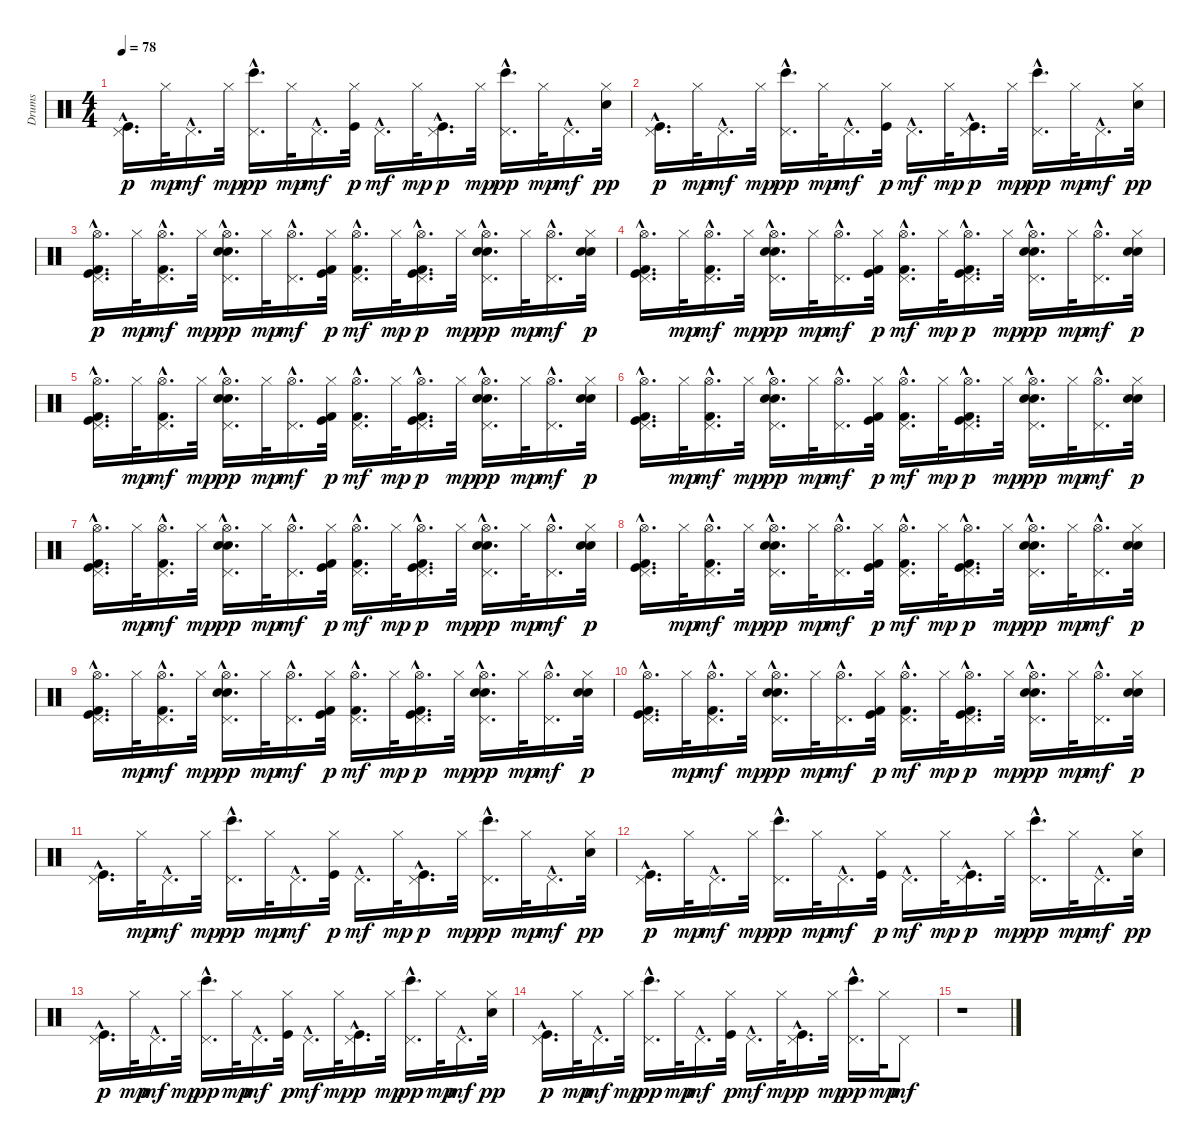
\track ("Drums" "Drums") {instrument percussion}
\staff {score}
\articulation defaults
\ts (4 4)
\tempo 78
\clef neutral
\ks c
("Pedal Hi-Hat (hit)"{hac} "Kick (hit)"{hac}).16{d dy p} "Hi-Hat (closed)".32{dy mp} "Pedal Hi-Hat (hit)"{hac}.16{d dy mf} "Hi-Hat (closed)".32{dy mp} ("Pedal Hi-Hat (hit)"{hac} "Bongo High (hit)"{hac}).16{d dy pp} "Hi-Hat (closed)".32{dy mp} "Pedal Hi-Hat (hit)"{hac}.16{d dy mf} ("Hi-Hat (closed)" "Kick (hit)").32{dy p} "Pedal Hi-Hat (hit)"{hac}.16{d dy mf} "Hi-Hat (closed)".32{dy mp} ("Pedal Hi-Hat (hit)"{hac} "Kick (hit)"{hac}).16{d dy p} "Hi-Hat (closed)".32{dy mp} ("Pedal Hi-Hat (hit)"{hac} "Bongo High (hit)"{hac}).16{d dy pp} "Hi-Hat (closed)".32{dy mp} "Pedal Hi-Hat (hit)"{hac}.16{d dy mf} ("Hi-Hat (closed)" "Snare (hit) 2").32{dy pp} |
("Pedal Hi-Hat (hit)"{hac} "Kick (hit)"{hac}).16{d dy p} "Hi-Hat (closed)".32{dy mp} "Pedal Hi-Hat (hit)"{hac}.16{d dy mf} "Hi-Hat (closed)".32{dy mp} ("Pedal Hi-Hat (hit)"{hac} "Bongo High (hit)"{hac}).16{d dy pp} "Hi-Hat (closed)".32{dy mp} "Pedal Hi-Hat (hit)"{hac}.16{d dy mf} ("Hi-Hat (closed)" "Kick (hit)").32{dy p} "Pedal Hi-Hat (hit)"{hac}.16{d dy mf} "Hi-Hat (closed)".32{dy mp} ("Pedal Hi-Hat (hit)"{hac} "Kick (hit)"{hac}).16{d dy p} "Hi-Hat (closed)".32{dy mp} ("Pedal Hi-Hat (hit)"{hac} "Bongo High (hit)"{hac}).16{d dy pp} "Hi-Hat (closed)".32{dy mp} "Pedal Hi-Hat (hit)"{hac}.16{d dy mf} ("Hi-Hat (closed)" "Snare (hit) 2").32{dy pp} |
("Pedal Hi-Hat (hit)"{hac} "Kick (hit)"{hac} "Hi-Hat (open)"{hac} "Kick (hit) 2"{hac}).16{d dy p} "Hi-Hat (closed)".32{dy mp} ("Pedal Hi-Hat (hit)"{hac} "Hi-Hat (open)"{hac} "Kick (hit) 2"{hac}).16{d dy mf} "Hi-Hat (closed)".32{dy mp} ("Pedal Hi-Hat (hit)"{hac} "Snare (hit) 2"{hac} "Hi-Hat (open)"{hac} "Electric Snare (hit)"{hac}).16{d dy pp} "Hi-Hat (closed)".32{dy mp} ("Pedal Hi-Hat (hit)"{hac} "Hi-Hat (open)"{hac}).16{d dy mf} ("Hi-Hat (closed)" "Kick (hit)" "Kick (hit) 2").32{dy p} ("Pedal Hi-Hat (hit)"{hac} "Hi-Hat (open)"{hac} "Kick (hit) 2"{hac}).16{d dy mf} "Hi-Hat (closed)".32{dy mp} ("Pedal Hi-Hat (hit)"{hac} "Kick (hit)"{hac} "Hi-Hat (open)"{hac} "Kick (hit) 2"{hac}).16{d dy p} "Hi-Hat (closed)".32{dy mp} ("Pedal Hi-Hat (hit)"{hac} "Snare (hit) 2"{hac} "Hi-Hat (open)"{hac} "Electric Snare (hit)"{hac}).16{d dy pp} "Hi-Hat (closed)".32{dy mp} ("Pedal Hi-Hat (hit)"{hac} "Hi-Hat (open)"{hac}).16{d dy mf} ("Hi-Hat (closed)" "Snare (hit) 2" "Electric Snare (hit)").32{dy p} |
("Pedal Hi-Hat (hit)"{hac} "Kick (hit)"{hac} "Hi-Hat (open)"{hac} "Kick (hit) 2"{hac}).16{d} "Hi-Hat (closed)".32{dy mp} ("Pedal Hi-Hat (hit)"{hac} "Hi-Hat (open)"{hac} "Kick (hit) 2"{hac}).16{d dy mf} "Hi-Hat (closed)".32{dy mp} ("Pedal Hi-Hat (hit)"{hac} "Snare (hit) 2"{hac} "Hi-Hat (open)"{hac} "Electric Snare (hit)"{hac}).16{d dy pp} "Hi-Hat (closed)".32{dy mp} ("Pedal Hi-Hat (hit)"{hac} "Hi-Hat (open)"{hac}).16{d dy mf} ("Hi-Hat (closed)" "Kick (hit)" "Kick (hit) 2").32{dy p} ("Pedal Hi-Hat (hit)"{hac} "Hi-Hat (open)"{hac} "Kick (hit) 2"{hac}).16{d dy mf} "Hi-Hat (closed)".32{dy mp} ("Pedal Hi-Hat (hit)"{hac} "Kick (hit)"{hac} "Hi-Hat (open)"{hac} "Kick (hit) 2"{hac}).16{d dy p} "Hi-Hat (closed)".32{dy mp} ("Pedal Hi-Hat (hit)"{hac} "Snare (hit) 2"{hac} "Hi-Hat (open)"{hac} "Electric Snare (hit)"{hac}).16{d dy pp} "Hi-Hat (closed)".32{dy mp} ("Pedal Hi-Hat (hit)"{hac} "Hi-Hat (open)"{hac}).16{d dy mf} ("Hi-Hat (closed)" "Snare (hit) 2" "Electric Snare (hit)").32{dy p} |
("Pedal Hi-Hat (hit)"{hac} "Kick (hit)"{hac} "Hi-Hat (open)"{hac} "Kick (hit) 2"{hac}).16{d} "Hi-Hat (closed)".32{dy mp} ("Pedal Hi-Hat (hit)"{hac} "Hi-Hat (open)"{hac} "Kick (hit) 2"{hac}).16{d dy mf} "Hi-Hat (closed)".32{dy mp} ("Pedal Hi-Hat (hit)"{hac} "Snare (hit) 2"{hac} "Hi-Hat (open)"{hac} "Electric Snare (hit)"{hac}).16{d dy pp} "Hi-Hat (closed)".32{dy mp} ("Pedal Hi-Hat (hit)"{hac} "Hi-Hat (open)"{hac}).16{d dy mf} ("Hi-Hat (closed)" "Kick (hit)" "Kick (hit) 2").32{dy p} ("Pedal Hi-Hat (hit)"{hac} "Hi-Hat (open)"{hac} "Kick (hit) 2"{hac}).16{d dy mf} "Hi-Hat (closed)".32{dy mp} ("Pedal Hi-Hat (hit)"{hac} "Kick (hit)"{hac} "Hi-Hat (open)"{hac} "Kick (hit) 2"{hac}).16{d dy p} "Hi-Hat (closed)".32{dy mp} ("Pedal Hi-Hat (hit)"{hac} "Snare (hit) 2"{hac} "Hi-Hat (open)"{hac} "Electric Snare (hit)"{hac}).16{d dy pp} "Hi-Hat (closed)".32{dy mp} ("Pedal Hi-Hat (hit)"{hac} "Hi-Hat (open)"{hac}).16{d dy mf} ("Hi-Hat (closed)" "Snare (hit) 2" "Electric Snare (hit)").32{dy p} |
("Pedal Hi-Hat (hit)"{hac} "Kick (hit)"{hac} "Hi-Hat (open)"{hac} "Kick (hit) 2"{hac}).16{d} "Hi-Hat (closed)".32{dy mp} ("Pedal Hi-Hat (hit)"{hac} "Hi-Hat (open)"{hac} "Kick (hit) 2"{hac}).16{d dy mf} "Hi-Hat (closed)".32{dy mp} ("Pedal Hi-Hat (hit)"{hac} "Snare (hit) 2"{hac} "Hi-Hat (open)"{hac} "Electric Snare (hit)"{hac}).16{d dy pp} "Hi-Hat (closed)".32{dy mp} ("Pedal Hi-Hat (hit)"{hac} "Hi-Hat (open)"{hac}).16{d dy mf} ("Hi-Hat (closed)" "Kick (hit)" "Kick (hit) 2").32{dy p} ("Pedal Hi-Hat (hit)"{hac} "Hi-Hat (open)"{hac} "Kick (hit) 2"{hac}).16{d dy mf} "Hi-Hat (closed)".32{dy mp} ("Pedal Hi-Hat (hit)"{hac} "Kick (hit)"{hac} "Hi-Hat (open)"{hac} "Kick (hit) 2"{hac}).16{d dy p} "Hi-Hat (closed)".32{dy mp} ("Pedal Hi-Hat (hit)"{hac} "Snare (hit) 2"{hac} "Hi-Hat (open)"{hac} "Electric Snare (hit)"{hac}).16{d dy pp} "Hi-Hat (closed)".32{dy mp} ("Pedal Hi-Hat (hit)"{hac} "Hi-Hat (open)"{hac}).16{d dy mf} ("Hi-Hat (closed)" "Snare (hit) 2" "Electric Snare (hit)").32{dy p} |
("Pedal Hi-Hat (hit)"{hac} "Kick (hit)"{hac} "Hi-Hat (open)"{hac} "Kick (hit) 2"{hac}).16{d} "Hi-Hat (closed)".32{dy mp} ("Pedal Hi-Hat (hit)"{hac} "Hi-Hat (open)"{hac} "Kick (hit) 2"{hac}).16{d dy mf} "Hi-Hat (closed)".32{dy mp} ("Pedal Hi-Hat (hit)"{hac} "Snare (hit) 2"{hac} "Hi-Hat (open)"{hac} "Electric Snare (hit)"{hac}).16{d dy pp} "Hi-Hat (closed)".32{dy mp} ("Pedal Hi-Hat (hit)"{hac} "Hi-Hat (open)"{hac}).16{d dy mf} ("Hi-Hat (closed)" "Kick (hit)" "Kick (hit) 2").32{dy p} ("Pedal Hi-Hat (hit)"{hac} "Hi-Hat (open)"{hac} "Kick (hit) 2"{hac}).16{d dy mf} "Hi-Hat (closed)".32{dy mp} ("Pedal Hi-Hat (hit)"{hac} "Kick (hit)"{hac} "Hi-Hat (open)"{hac} "Kick (hit) 2"{hac}).16{d dy p} "Hi-Hat (closed)".32{dy mp} ("Pedal Hi-Hat (hit)"{hac} "Snare (hit) 2"{hac} "Hi-Hat (open)"{hac} "Electric Snare (hit)"{hac}).16{d dy pp} "Hi-Hat (closed)".32{dy mp} ("Pedal Hi-Hat (hit)"{hac} "Hi-Hat (open)"{hac}).16{d dy mf} ("Hi-Hat (closed)" "Snare (hit) 2" "Electric Snare (hit)").32{dy p} |
("Pedal Hi-Hat (hit)"{hac} "Kick (hit)"{hac} "Hi-Hat (open)"{hac} "Kick (hit) 2"{hac}).16{d} "Hi-Hat (closed)".32{dy mp} ("Pedal Hi-Hat (hit)"{hac} "Hi-Hat (open)"{hac} "Kick (hit) 2"{hac}).16{d dy mf} "Hi-Hat (closed)".32{dy mp} ("Pedal Hi-Hat (hit)"{hac} "Snare (hit) 2"{hac} "Hi-Hat (open)"{hac} "Electric Snare (hit)"{hac}).16{d dy pp} "Hi-Hat (closed)".32{dy mp} ("Pedal Hi-Hat (hit)"{hac} "Hi-Hat (open)"{hac}).16{d dy mf} ("Hi-Hat (closed)" "Kick (hit)" "Kick (hit) 2").32{dy p} ("Pedal Hi-Hat (hit)"{hac} "Hi-Hat (open)"{hac} "Kick (hit) 2"{hac}).16{d dy mf} "Hi-Hat (closed)".32{dy mp} ("Pedal Hi-Hat (hit)"{hac} "Kick (hit)"{hac} "Hi-Hat (open)"{hac} "Kick (hit) 2"{hac}).16{d dy p} "Hi-Hat (closed)".32{dy mp} ("Pedal Hi-Hat (hit)"{hac} "Snare (hit) 2"{hac} "Hi-Hat (open)"{hac} "Electric Snare (hit)"{hac}).16{d dy pp} "Hi-Hat (closed)".32{dy mp} ("Pedal Hi-Hat (hit)"{hac} "Hi-Hat (open)"{hac}).16{d dy mf} ("Hi-Hat (closed)" "Snare (hit) 2" "Electric Snare (hit)").32{dy p} |
("Pedal Hi-Hat (hit)"{hac} "Kick (hit)"{hac} "Hi-Hat (open)"{hac} "Kick (hit) 2"{hac}).16{d} "Hi-Hat (closed)".32{dy mp} ("Pedal Hi-Hat (hit)"{hac} "Hi-Hat (open)"{hac} "Kick (hit) 2"{hac}).16{d dy mf} "Hi-Hat (closed)".32{dy mp} ("Pedal Hi-Hat (hit)"{hac} "Snare (hit) 2"{hac} "Hi-Hat (open)"{hac} "Electric Snare (hit)"{hac}).16{d dy pp} "Hi-Hat (closed)".32{dy mp} ("Pedal Hi-Hat (hit)"{hac} "Hi-Hat (open)"{hac}).16{d dy mf} ("Hi-Hat (closed)" "Kick (hit)" "Kick (hit) 2").32{dy p} ("Pedal Hi-Hat (hit)"{hac} "Hi-Hat (open)"{hac} "Kick (hit) 2"{hac}).16{d dy mf} "Hi-Hat (closed)".32{dy mp} ("Pedal Hi-Hat (hit)"{hac} "Kick (hit)"{hac} "Hi-Hat (open)"{hac} "Kick (hit) 2"{hac}).16{d dy p} "Hi-Hat (closed)".32{dy mp} ("Pedal Hi-Hat (hit)"{hac} "Snare (hit) 2"{hac} "Hi-Hat (open)"{hac} "Electric Snare (hit)"{hac}).16{d dy pp} "Hi-Hat (closed)".32{dy mp} ("Pedal Hi-Hat (hit)"{hac} "Hi-Hat (open)"{hac}).16{d dy mf} ("Hi-Hat (closed)" "Snare (hit) 2" "Electric Snare (hit)").32{dy p} |
("Pedal Hi-Hat (hit)"{hac} "Kick (hit)"{hac} "Hi-Hat (open)"{hac} "Kick (hit) 2"{hac}).16{d} "Hi-Hat (closed)".32{dy mp} ("Pedal Hi-Hat (hit)"{hac} "Hi-Hat (open)"{hac} "Kick (hit) 2"{hac}).16{d dy mf} "Hi-Hat (closed)".32{dy mp} ("Pedal Hi-Hat (hit)"{hac} "Snare (hit) 2"{hac} "Hi-Hat (open)"{hac} "Electric Snare (hit)"{hac}).16{d dy pp} "Hi-Hat (closed)".32{dy mp} ("Pedal Hi-Hat (hit)"{hac} "Hi-Hat (open)"{hac}).16{d dy mf} ("Hi-Hat (closed)" "Kick (hit)" "Kick (hit) 2").32{dy p} ("Pedal Hi-Hat (hit)"{hac} "Hi-Hat (open)"{hac} "Kick (hit) 2"{hac}).16{d dy mf} "Hi-Hat (closed)".32{dy mp} ("Pedal Hi-Hat (hit)"{hac} "Kick (hit)"{hac} "Hi-Hat (open)"{hac} "Kick (hit) 2"{hac}).16{d dy p} "Hi-Hat (closed)".32{dy mp} ("Pedal Hi-Hat (hit)"{hac} "Snare (hit) 2"{hac} "Hi-Hat (open)"{hac} "Electric Snare (hit)"{hac}).16{d dy pp} "Hi-Hat (closed)".32{dy mp} ("Pedal Hi-Hat (hit)"{hac} "Hi-Hat (open)"{hac}).16{d dy mf} ("Hi-Hat (closed)" "Snare (hit) 2" "Electric Snare (hit)").32{dy p} |
("Pedal Hi-Hat (hit)"{hac} "Kick (hit)"{hac}).16{d} "Hi-Hat (closed)".32{dy mp} "Pedal Hi-Hat (hit)"{hac}.16{d dy mf} "Hi-Hat (closed)".32{dy mp} ("Pedal Hi-Hat (hit)"{hac} "Bongo High (hit)"{hac}).16{d dy pp} "Hi-Hat (closed)".32{dy mp} "Pedal Hi-Hat (hit)"{hac}.16{d dy mf} ("Hi-Hat (closed)" "Kick (hit)").32{dy p} "Pedal Hi-Hat (hit)"{hac}.16{d dy mf} "Hi-Hat (closed)".32{dy mp} ("Pedal Hi-Hat (hit)"{hac} "Kick (hit)"{hac}).16{d dy p} "Hi-Hat (closed)".32{dy mp} ("Pedal Hi-Hat (hit)"{hac} "Bongo High (hit)"{hac}).16{d dy pp} "Hi-Hat (closed)".32{dy mp} "Pedal Hi-Hat (hit)"{hac}.16{d dy mf} ("Hi-Hat (closed)" "Snare (hit) 2").32{dy pp} |
("Pedal Hi-Hat (hit)"{hac} "Kick (hit)"{hac}).16{d dy p} "Hi-Hat (closed)".32{dy mp} "Pedal Hi-Hat (hit)"{hac}.16{d dy mf} "Hi-Hat (closed)".32{dy mp} ("Pedal Hi-Hat (hit)"{hac} "Bongo High (hit)"{hac}).16{d dy pp} "Hi-Hat (closed)".32{dy mp} "Pedal Hi-Hat (hit)"{hac}.16{d dy mf} ("Hi-Hat (closed)" "Kick (hit)").32{dy p} "Pedal Hi-Hat (hit)"{hac}.16{d dy mf} "Hi-Hat (closed)".32{dy mp} ("Pedal Hi-Hat (hit)"{hac} "Kick (hit)"{hac}).16{d dy p} "Hi-Hat (closed)".32{dy mp} ("Pedal Hi-Hat (hit)"{hac} "Bongo High (hit)"{hac}).16{d dy pp} "Hi-Hat (closed)".32{dy mp} "Pedal Hi-Hat (hit)"{hac}.16{d dy mf} ("Hi-Hat (closed)" "Snare (hit) 2").32{dy pp} |
("Pedal Hi-Hat (hit)"{hac} "Kick (hit)"{hac}).16{d dy p} "Hi-Hat (closed)".32{dy mp} "Pedal Hi-Hat (hit)"{hac}.16{d dy mf} "Hi-Hat (closed)".32{dy mp} ("Pedal Hi-Hat (hit)"{hac} "Bongo High (hit)"{hac}).16{d dy pp} "Hi-Hat (closed)".32{dy mp} "Pedal Hi-Hat (hit)"{hac}.16{d dy mf} ("Hi-Hat (closed)" "Kick (hit)").32{dy p} "Pedal Hi-Hat (hit)"{hac}.16{d dy mf} "Hi-Hat (closed)".32{dy mp} ("Pedal Hi-Hat (hit)"{hac} "Kick (hit)"{hac}).16{d dy p} "Hi-Hat (closed)".32{dy mp} ("Pedal Hi-Hat (hit)"{hac} "Bongo High (hit)"{hac}).16{d dy pp} "Hi-Hat (closed)".32{dy mp} "Pedal Hi-Hat (hit)"{hac}.16{d dy mf} ("Hi-Hat (closed)" "Snare (hit) 2").32{dy pp} |
("Pedal Hi-Hat (hit)"{hac} "Kick (hit)"{hac}).16{d dy p} "Hi-Hat (closed)".32{dy mp} "Pedal Hi-Hat (hit)"{hac}.16{d dy mf} "Hi-Hat (closed)".32{dy mp} ("Pedal Hi-Hat (hit)"{hac} "Bongo High (hit)"{hac}).16{d dy pp} "Hi-Hat (closed)".32{dy mp} "Pedal Hi-Hat (hit)"{hac}.16{d dy mf} ("Hi-Hat (closed)" "Kick (hit)").32{dy p} "Pedal Hi-Hat (hit)"{hac}.16{d dy mf} "Hi-Hat (closed)".32{dy mp} ("Pedal Hi-Hat (hit)"{hac} "Kick (hit)"{hac}).16{d dy p} "Hi-Hat (closed)".32{dy mp} ("Pedal Hi-Hat (hit)"{hac} "Bongo High (hit)"{hac}).16{d dy pp} "Hi-Hat (closed)".32{dy mp} "Pedal Hi-Hat (hit)".8{dy mf} |
r.1
